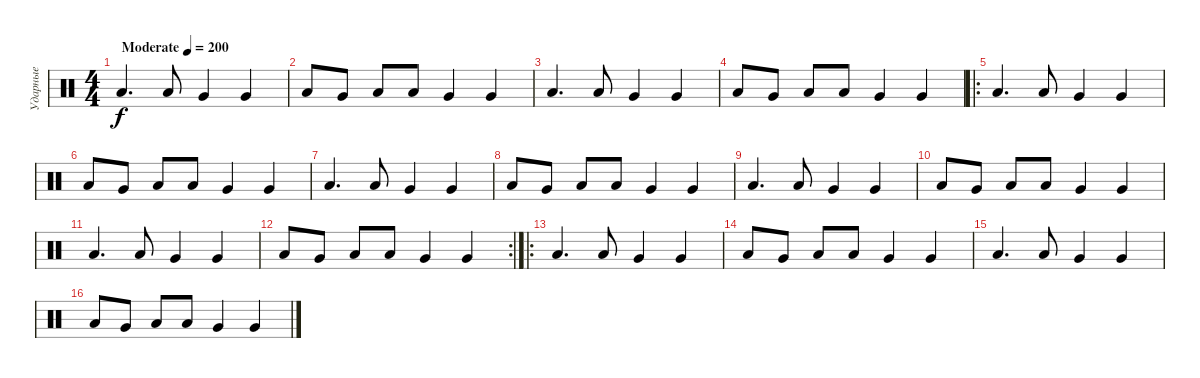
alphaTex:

\track ("Ударные" "Ударные") {instrument percussion}
\staff {score}
\articulation defaults
\ts (4 4)
\tempo (200 "Moderate")
\clef neutral
\ks c "Low Floor Tom (hit)".4{d dy f} "Low Floor Tom (hit)".8 "Very Low Tom (hit)".4 "Very Low Tom (hit)".4
|
"Low Floor Tom (hit)".8 "Very Low Tom (hit)".8 "Low Floor Tom (hit)".8 "Low Floor Tom (hit)".8 "Very Low Tom (hit)".4 "Very Low Tom (hit)".4 |
"Low Floor Tom (hit)".4{d} "Low Floor Tom (hit)".8 "Very Low Tom (hit)".4 "Very Low Tom (hit)".4 |
"Low Floor Tom (hit)".8 "Very Low Tom (hit)".8 "Low Floor Tom (hit)".8 "Low Floor Tom (hit)".8 "Very Low Tom (hit)".4 "Very Low Tom (hit)".4 |
\ro "Low Floor Tom (hit)".4{d} "Low Floor Tom (hit)".8 "Very Low Tom (hit)".4 "Very Low Tom (hit)".4
|
"Low Floor Tom (hit)".8 "Very Low Tom (hit)".8 "Low Floor Tom (hit)".8 "Low Floor Tom (hit)".8 "Very Low Tom (hit)".4 "Very Low Tom (hit)".4 |
"Low Floor Tom (hit)".4{d} "Low Floor Tom (hit)".8 "Very Low Tom (hit)".4 "Very Low Tom (hit)".4 |
"Low Floor Tom (hit)".8 "Very Low Tom (hit)".8 "Low Floor Tom (hit)".8 "Low Floor Tom (hit)".8 "Very Low Tom (hit)".4 "Very Low Tom (hit)".4 |
"Low Floor Tom (hit)".4{d} "Low Floor Tom (hit)".8 "Very Low Tom (hit)".4 "Very Low Tom (hit)".4 |
"Low Floor Tom (hit)".8 "Very Low Tom (hit)".8 "Low Floor Tom (hit)".8 "Low Floor Tom (hit)".8 "Very Low Tom (hit)".4 "Very Low Tom (hit)".4 |
"Low Floor Tom (hit)".4{d} "Low Floor Tom (hit)".8 "Very Low Tom (hit)".4 "Very Low Tom (hit)".4 |
\rc 2 "Low Floor Tom (hit)".8 "Very Low Tom (hit)".8 "Low Floor Tom (hit)".8 "Low Floor Tom (hit)".8 "Very Low Tom (hit)".4 "Very Low Tom (hit)".4
|
\ro "Low Floor Tom (hit)".4{d} "Low Floor Tom (hit)".8 "Very Low Tom (hit)".4 "Very Low Tom (hit)".4
|
"Low Floor Tom (hit)".8 "Very Low Tom (hit)".8 "Low Floor Tom (hit)".8 "Low Floor Tom (hit)".8 "Very Low Tom (hit)".4 "Very Low Tom (hit)".4 |
"Low Floor Tom (hit)".4{d} "Low Floor Tom (hit)".8 "Very Low Tom (hit)".4 "Very Low Tom (hit)".4 |
"Low Floor Tom (hit)".8 "Very Low Tom (hit)".8 "Low Floor Tom (hit)".8 "Low Floor Tom (hit)".8 "Very Low Tom (hit)".4 "Very Low Tom (hit)".4
